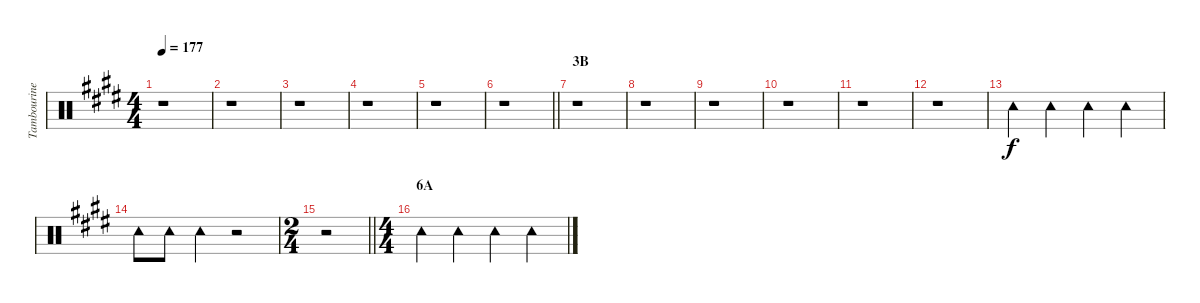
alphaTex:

\track ("Tambourine" "Tambourine") {instrument percussion}
\staff {score}
\articulation defaults
\ts (4 4)
\tempo 177
\clef neutral
\ks e
r.1{dy f} |
r.1 |
r.1 |
r.1 |
r.1 |
\barLineRight lightlight
r.1 |
\section ("" "3B")
r.1 |
r.1 |
r.1 |
r.1 |
r.1 |
r.1 |
"Tambourine (hit)".4 "Tambourine (hit)".4 "Tambourine (hit)".4 "Tambourine (hit)".4 |
"Tambourine (hit)".8 "Tambourine (hit)".8 "Tambourine (hit)".4 r.2 |
\ts (2 4)
\barLineRight lightlight
r.2 |
\ts (4 4)
\section ("" "6A")
"Tambourine (hit)".4 "Tambourine (hit)".4 "Tambourine (hit)".4 "Tambourine (hit)".4
